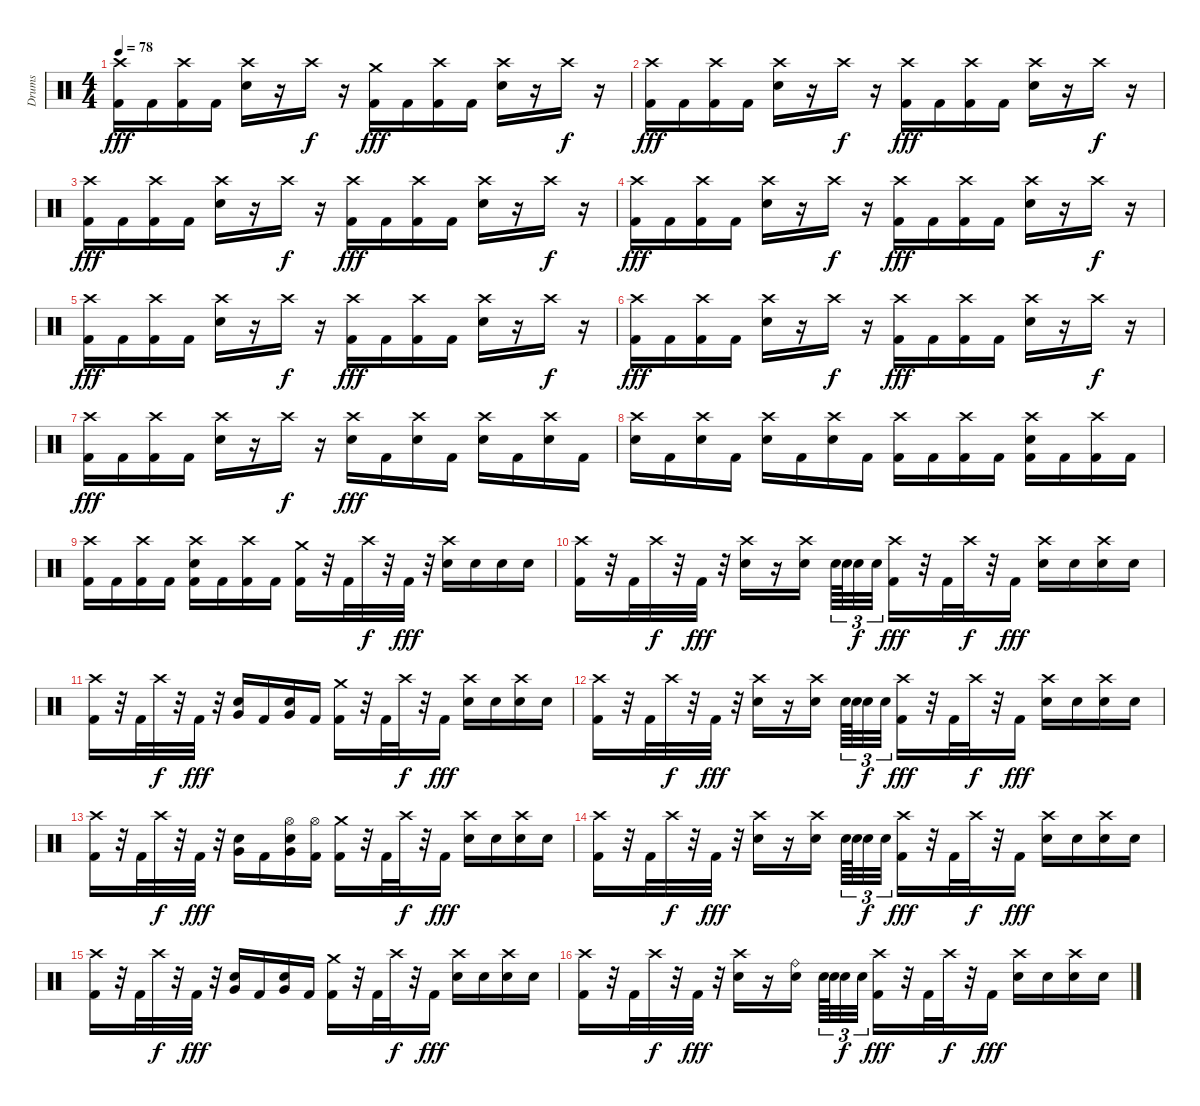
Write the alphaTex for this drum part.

\track ("Drums" "Drums") {instrument percussion}
\staff {score}
\articulation defaults
\ts (4 4)
\tempo 78
\clef neutral
\ks c
("Crash high (hit)" "Kick (hit) 2").16{dy fff} "Kick (hit) 2".16 ("Crash high (hit)" "Kick (hit) 2").16 "Kick (hit) 2".16 ("Crash high (hit)" "Electric Snare (hit)").16 r.16 "Crash high (hit)".16{dy f} r.16 ("Crash medium (hit)" "Kick (hit) 2").16{dy fff} "Kick (hit) 2".16 ("Crash high (hit)" "Kick (hit) 2").16 "Kick (hit) 2".16 ("Crash high (hit)" "Electric Snare (hit)").16 r.16 "Crash high (hit)".16{dy f} r.16 |
("Crash high (hit)" "Kick (hit) 2").16{dy fff} "Kick (hit) 2".16 ("Crash high (hit)" "Kick (hit) 2").16 "Kick (hit) 2".16 ("Crash high (hit)" "Electric Snare (hit)").16 r.16 "Crash high (hit)".16{dy f} r.16 ("Crash high (hit)" "Kick (hit) 2").16{dy fff} "Kick (hit) 2".16 ("Crash high (hit)" "Kick (hit) 2").16 "Kick (hit) 2".16 ("Crash high (hit)" "Electric Snare (hit)").16 r.16 "Crash high (hit)".16{dy f} r.16 |
("Crash high (hit)" "Kick (hit) 2").16{dy fff} "Kick (hit) 2".16 ("Crash high (hit)" "Kick (hit) 2").16 "Kick (hit) 2".16 ("Crash high (hit)" "Electric Snare (hit)").16 r.16 "Crash high (hit)".16{dy f} r.16 ("Crash high (hit)" "Kick (hit) 2").16{dy fff} "Kick (hit) 2".16 ("Crash high (hit)" "Kick (hit) 2").16 "Kick (hit) 2".16 ("Crash high (hit)" "Electric Snare (hit)").16 r.16 "Crash high (hit)".16{dy f} r.16 |
("Crash high (hit)" "Kick (hit) 2").16{dy fff} "Kick (hit) 2".16 ("Crash high (hit)" "Kick (hit) 2").16 "Kick (hit) 2".16 ("Crash high (hit)" "Electric Snare (hit)").16 r.16 "Crash high (hit)".16{dy f} r.16 ("Crash high (hit)" "Kick (hit) 2").16{dy fff} "Kick (hit) 2".16 ("Crash high (hit)" "Kick (hit) 2").16 "Kick (hit) 2".16 ("Crash high (hit)" "Electric Snare (hit)").16 r.16 "Crash high (hit)".16{dy f} r.16 |
("Crash high (hit)" "Kick (hit) 2").16{dy fff} "Kick (hit) 2".16 ("Crash high (hit)" "Kick (hit) 2").16 "Kick (hit) 2".16 ("Crash high (hit)" "Electric Snare (hit)").16 r.16 "Crash high (hit)".16{dy f} r.16 ("Crash high (hit)" "Kick (hit) 2").16{dy fff} "Kick (hit) 2".16 ("Crash high (hit)" "Kick (hit) 2").16 "Kick (hit) 2".16 ("Crash high (hit)" "Electric Snare (hit)").16 r.16 "Crash high (hit)".16{dy f} r.16 |
("Crash high (hit)" "Kick (hit) 2").16{dy fff} "Kick (hit) 2".16 ("Crash high (hit)" "Kick (hit) 2").16 "Kick (hit) 2".16 ("Crash high (hit)" "Electric Snare (hit)").16 r.16 "Crash high (hit)".16{dy f} r.16 ("Crash high (hit)" "Kick (hit) 2").16{dy fff} "Kick (hit) 2".16 ("Crash high (hit)" "Kick (hit) 2").16 "Kick (hit) 2".16 ("Crash high (hit)" "Electric Snare (hit)").16 r.16 "Crash high (hit)".16{dy f} r.16 |
("Crash high (hit)" "Kick (hit) 2").16{dy fff} "Kick (hit) 2".16 ("Crash high (hit)" "Kick (hit) 2").16 "Kick (hit) 2".16 ("Crash high (hit)" "Electric Snare (hit)").16 r.16 "Crash high (hit)".16{dy f} r.16 ("Crash high (hit)" "Electric Snare (hit)").16{dy fff} "Kick (hit) 2".16 ("Crash high (hit)" "Electric Snare (hit)").16 "Kick (hit) 2".16 ("Crash high (hit)" "Electric Snare (hit)").16 "Kick (hit) 2".16 ("Crash high (hit)" "Electric Snare (hit)").16 "Kick (hit) 2".16 |
("Crash high (hit)" "Electric Snare (hit)").16 "Kick (hit) 2".16 ("Crash high (hit)" "Electric Snare (hit)").16 "Kick (hit) 2".16 ("Crash high (hit)" "Electric Snare (hit)").16 "Kick (hit) 2".16 ("Crash high (hit)" "Electric Snare (hit)").16 "Kick (hit) 2".16 ("Crash high (hit)" "Kick (hit) 2").16 "Kick (hit) 2".16 ("Crash high (hit)" "Kick (hit) 2").16 "Kick (hit) 2".16 ("Crash high (hit)" "Electric Snare (hit)" "Kick (hit) 2").16 "Kick (hit) 2".16 ("Crash high (hit)" "Kick (hit) 2").16 "Kick (hit) 2".16 |
("Crash high (hit)" "Kick (hit) 2").16 "Kick (hit) 2".16 ("Crash high (hit)" "Kick (hit) 2").16 "Kick (hit) 2".16 ("Crash high (hit)" "Electric Snare (hit)" "Kick (hit) 2").16 "Kick (hit) 2".16 ("Crash high (hit)" "Kick (hit) 2").16 "Kick (hit) 2".16 ("Crash medium (hit)" "Kick (hit) 2").16 r.32 "Kick (hit) 2".32 "Crash high (hit)".32{dy f} r.32 "Kick (hit) 2".32{dy fff} r.32 ("Crash high (hit)" "Electric Snare (hit)").16 "Electric Snare (hit)".16 "Electric Snare (hit)".16 "Electric Snare (hit)".16 |
("Crash high (hit)" "Kick (hit) 2").16 r.32 "Kick (hit) 2".32 "Crash high (hit)".32{dy f} r.32 "Kick (hit) 2".32{dy fff} r.32 ("Crash high (hit)" "Electric Snare (hit)").16 r.16 ("Crash high (hit)" "Electric Snare (hit)").16{beam splitsecondary} "Electric Snare (hit)".64{tu (3 2)} "Electric Snare (hit)".64{tu (3 2)} "Electric Snare (hit)".32{tu (3 2) dy f} "Electric Snare (hit)".32{tu (3 2)} ("Crash high (hit)" "Kick (hit) 2").16{dy fff} r.32 "Kick (hit) 2".32 "Crash high (hit)".32{dy f} r.32 "Kick (hit) 2".16{dy fff} ("Crash high (hit)" "Electric Snare (hit)").16 "Electric Snare (hit)".16 ("Crash high (hit)" "Electric Snare (hit)").16 "Electric Snare (hit)".16 |
("Crash high (hit)" "Kick (hit) 2").16 r.32 "Kick (hit) 2".32 "Crash high (hit)".32{dy f} r.32 "Kick (hit) 2".32{dy fff} r.32 ("Very Low Tom (hit)" "Electric Snare (hit)").16 "Kick (hit) 2".16 ("Very Low Tom (hit)" "Electric Snare (hit)").16 "Kick (hit) 2".16 ("Crash medium (hit)" "Kick (hit) 2").16 r.32 "Kick (hit) 2".32 "Crash high (hit)".32{dy f} r.32 "Kick (hit) 2".16{dy fff} ("Crash high (hit)" "Electric Snare (hit)").16 "Electric Snare (hit)".16 ("Crash high (hit)" "Electric Snare (hit)").16 "Electric Snare (hit)".16 |
("Crash high (hit)" "Kick (hit) 2").16 r.32 "Kick (hit) 2".32 "Crash high (hit)".32{dy f} r.32 "Kick (hit) 2".32{dy fff} r.32 ("Crash high (hit)" "Electric Snare (hit)").16 r.16 ("Crash high (hit)" "Electric Snare (hit)").16{beam splitsecondary} "Electric Snare (hit)".64{tu (3 2)} "Electric Snare (hit)".64{tu (3 2)} "Electric Snare (hit)".32{tu (3 2) dy f} "Electric Snare (hit)".32{tu (3 2)} ("Crash high (hit)" "Kick (hit) 2").16{dy fff} r.32 "Kick (hit) 2".32 "Crash high (hit)".32{dy f} r.32 "Kick (hit) 2".16{dy fff} ("Crash high (hit)" "Electric Snare (hit)").16 "Electric Snare (hit)".16 ("Crash high (hit)" "Electric Snare (hit)").16 "Electric Snare (hit)".16 |
("Crash high (hit)" "Kick (hit) 2").16 r.32 "Kick (hit) 2".32 "Crash high (hit)".32{dy f} r.32 "Kick (hit) 2".32{dy fff} r.32 ("Very Low Tom (hit)" "Electric Snare (hit)").16 "Kick (hit) 2".16 ("Hi-Hat (open)" "Very Low Tom (hit)" "Electric Snare (hit)").16 ("Hi-Hat (open)" "Kick (hit) 2").16 ("Crash medium (hit)" "Kick (hit) 2").16 r.32 "Kick (hit) 2".32 "Crash high (hit)".32{dy f} r.32 "Kick (hit) 2".16{dy fff} ("Crash high (hit)" "Electric Snare (hit)").16 "Electric Snare (hit)".16 ("Crash high (hit)" "Electric Snare (hit)").16 "Electric Snare (hit)".16 |
("Crash high (hit)" "Kick (hit) 2").16 r.32 "Kick (hit) 2".32 "Crash high (hit)".32{dy f} r.32 "Kick (hit) 2".32{dy fff} r.32 ("Crash high (hit)" "Electric Snare (hit)").16 r.16 ("Crash high (hit)" "Electric Snare (hit)").16{beam splitsecondary} "Electric Snare (hit)".64{tu (3 2)} "Electric Snare (hit)".64{tu (3 2)} "Electric Snare (hit)".32{tu (3 2) dy f} "Electric Snare (hit)".32{tu (3 2)} ("Crash high (hit)" "Kick (hit) 2").16{dy fff} r.32 "Kick (hit) 2".32 "Crash high (hit)".32{dy f} r.32 "Kick (hit) 2".16{dy fff} ("Crash high (hit)" "Electric Snare (hit)").16 "Electric Snare (hit)".16 ("Crash high (hit)" "Electric Snare (hit)").16 "Electric Snare (hit)".16 |
("Crash high (hit)" "Kick (hit) 2").16 r.32 "Kick (hit) 2".32 "Crash high (hit)".32{dy f} r.32 "Kick (hit) 2".32{dy fff} r.32 ("Very Low Tom (hit)" "Electric Snare (hit)").16 "Kick (hit) 2".16 ("Very Low Tom (hit)" "Electric Snare (hit)").16 "Kick (hit) 2".16 ("Crash medium (hit)" "Kick (hit) 2").16 r.32 "Kick (hit) 2".32 "Crash high (hit)".32{dy f} r.32 "Kick (hit) 2".16{dy fff} ("Crash high (hit)" "Electric Snare (hit)").16 "Electric Snare (hit)".16 ("Crash high (hit)" "Electric Snare (hit)").16 "Electric Snare (hit)".16 |
("Crash high (hit)" "Kick (hit) 2").16 r.32 "Kick (hit) 2".32 "Crash high (hit)".32{dy f} r.32 "Kick (hit) 2".32{dy fff} r.32 ("Crash high (hit)" "Electric Snare (hit)").16 r.16 ("Ride (bell)" "Electric Snare (hit)").16{beam splitsecondary} "Electric Snare (hit)".64{tu (3 2)} "Electric Snare (hit)".64{tu (3 2)} "Electric Snare (hit)".32{tu (3 2) dy f} "Electric Snare (hit)".32{tu (3 2)} ("Crash high (hit)" "Kick (hit) 2").16{dy fff} r.32 "Kick (hit) 2".32 "Crash high (hit)".32{dy f} r.32 "Kick (hit) 2".16{dy fff} ("Crash high (hit)" "Electric Snare (hit)").16 "Electric Snare (hit)".16 ("Crash high (hit)" "Electric Snare (hit)").16 "Electric Snare (hit)".16
